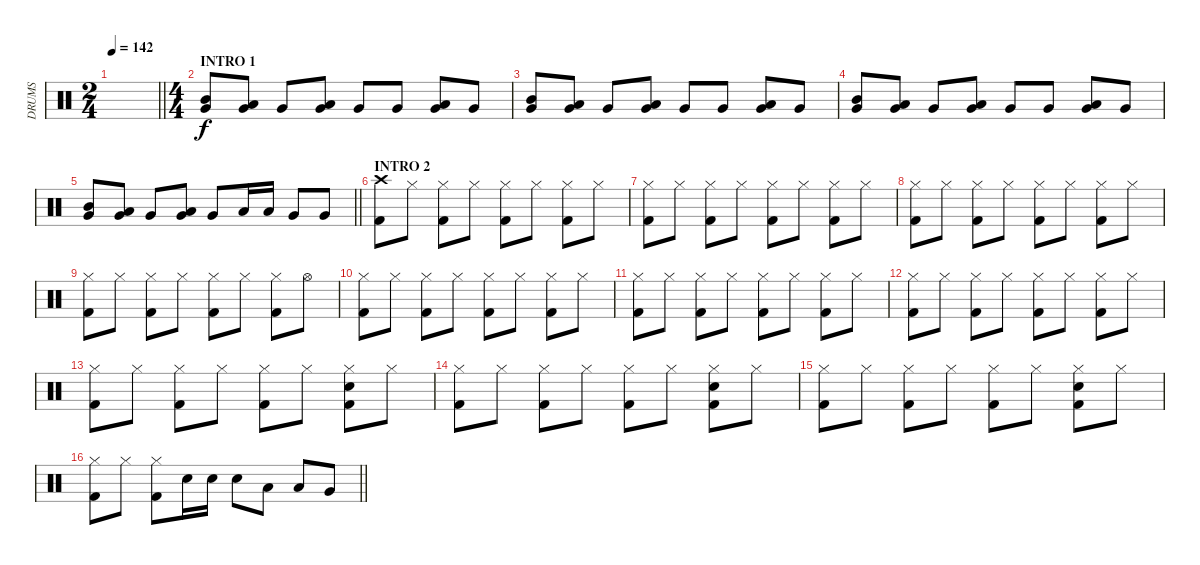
\track ("DRUMS" "DRUMS") {instrument percussion}
\staff {score}
\articulation defaults
\ts (2 4)
\tempo 142
\clef neutral
\barLineRight lightlight
\ks c
|
\ts (4 4)
\section ("" "INTRO 1")
("Mid Tom (hit)" "Very Low Tom (hit)").8 ("Very Low Tom (hit)" "Low Floor Tom (hit)").8 "Very Low Tom (hit)".8 ("Very Low Tom (hit)" "Low Tom (hit)").8 "Very Low Tom (hit)".8 "Very Low Tom (hit)".8 ("Low Tom (hit)" "Very Low Tom (hit)").8 "Very Low Tom (hit)".8 |
("Mid Tom (hit)" "Very Low Tom (hit)").8 ("Very Low Tom (hit)" "Low Floor Tom (hit)").8 "Very Low Tom (hit)".8 ("Very Low Tom (hit)" "Low Tom (hit)").8 "Very Low Tom (hit)".8 "Very Low Tom (hit)".8 ("Low Tom (hit)" "Very Low Tom (hit)").8 "Very Low Tom (hit)".8 |
("Mid Tom (hit)" "Very Low Tom (hit)").8 ("Very Low Tom (hit)" "Low Floor Tom (hit)").8 "Very Low Tom (hit)".8 ("Very Low Tom (hit)" "Low Tom (hit)").8 "Very Low Tom (hit)".8 "Very Low Tom (hit)".8 ("Low Tom (hit)" "Very Low Tom (hit)").8 "Very Low Tom (hit)".8 |
\barLineRight lightlight
("Mid Tom (hit)" "Very Low Tom (hit)").8 ("Low Tom (hit)" "Very Low Tom (hit)").8 "Very Low Tom (hit)".8 ("Low Tom (hit)" "Very Low Tom (hit)").8 "Very Low Tom (hit)".8 "Low Tom (hit)".16 "Low Tom (hit)".16 "Very Low Tom (hit)".8 "Very Low Tom (hit)".8 |
\section ("" "INTRO 2")
("Crash high (hit)" "Kick (hit) 2").8 "Hi-Hat (closed)".8 ("Hi-Hat (closed)" "Kick (hit) 2").8 "Hi-Hat (closed)".8 ("Hi-Hat (closed)" "Kick (hit) 2").8 "Hi-Hat (closed)".8 ("Hi-Hat (closed)" "Kick (hit) 2").8 "Hi-Hat (closed)".8 |
("Hi-Hat (closed)" "Kick (hit) 2").8 "Hi-Hat (closed)".8 ("Hi-Hat (closed)" "Kick (hit) 2").8 "Hi-Hat (closed)".8 ("Hi-Hat (closed)" "Kick (hit) 2").8 "Hi-Hat (closed)".8 ("Hi-Hat (closed)" "Kick (hit) 2").8 "Hi-Hat (closed)".8 |
("Hi-Hat (closed)" "Kick (hit) 2").8 "Hi-Hat (closed)".8 ("Hi-Hat (closed)" "Kick (hit) 2").8 "Hi-Hat (closed)".8 ("Hi-Hat (closed)" "Kick (hit) 2").8 "Hi-Hat (closed)".8 ("Hi-Hat (closed)" "Kick (hit) 2").8 "Hi-Hat (closed)".8 |
("Hi-Hat (closed)" "Kick (hit) 2").8 "Hi-Hat (closed)".8 ("Hi-Hat (closed)" "Kick (hit) 2").8 "Hi-Hat (closed)".8 ("Hi-Hat (closed)" "Kick (hit) 2").8 "Hi-Hat (closed)".8 ("Hi-Hat (closed)" "Kick (hit) 2").8 "Hi-Hat (open)".8 |
("Hi-Hat (closed)" "Kick (hit) 2").8 "Hi-Hat (closed)".8 ("Hi-Hat (closed)" "Kick (hit) 2").8 "Hi-Hat (closed)".8 ("Hi-Hat (closed)" "Kick (hit) 2").8 "Hi-Hat (closed)".8 ("Hi-Hat (closed)" "Kick (hit) 2").8 "Hi-Hat (closed)".8 |
("Hi-Hat (closed)" "Kick (hit) 2").8 "Hi-Hat (closed)".8 ("Hi-Hat (closed)" "Kick (hit) 2").8 "Hi-Hat (closed)".8 ("Hi-Hat (closed)" "Kick (hit) 2").8 "Hi-Hat (closed)".8 ("Hi-Hat (closed)" "Kick (hit) 2").8 "Hi-Hat (closed)".8 |
("Hi-Hat (closed)" "Kick (hit) 2").8 "Hi-Hat (closed)".8 ("Hi-Hat (closed)" "Kick (hit) 2").8 "Hi-Hat (closed)".8 ("Hi-Hat (closed)" "Kick (hit) 2").8 "Hi-Hat (closed)".8 ("Hi-Hat (closed)" "Kick (hit) 2").8 "Hi-Hat (closed)".8 |
("Hi-Hat (closed)" "Kick (hit) 2").8 "Hi-Hat (closed)".8 ("Hi-Hat (closed)" "Kick (hit) 2").8 "Hi-Hat (closed)".8 ("Hi-Hat (closed)" "Kick (hit) 2").8 "Hi-Hat (closed)".8 ("Hi-Hat (closed)" "Kick (hit) 2" "Snare (hit) 2").8 "Hi-Hat (closed)".8 |
("Hi-Hat (closed)" "Kick (hit) 2").8 "Hi-Hat (closed)".8 ("Hi-Hat (closed)" "Kick (hit) 2").8 "Hi-Hat (closed)".8 ("Hi-Hat (closed)" "Kick (hit) 2").8 "Hi-Hat (closed)".8 ("Hi-Hat (closed)" "Kick (hit) 2" "Snare (hit) 2").8 "Hi-Hat (closed)".8 |
("Hi-Hat (closed)" "Kick (hit) 2").8 "Hi-Hat (closed)".8 ("Hi-Hat (closed)" "Kick (hit) 2").8 "Hi-Hat (closed)".8 ("Hi-Hat (closed)" "Kick (hit) 2").8 "Hi-Hat (closed)".8 ("Hi-Hat (closed)" "Kick (hit) 2" "Snare (hit) 2").8 "Hi-Hat (closed)".8 |
\barLineRight lightlight
("Hi-Hat (closed)" "Kick (hit) 2").8 "Hi-Hat (closed)".8 ("Hi-Hat (closed)" "Kick (hit) 2").8 "Snare (hit) 2".16 "Snare (hit) 2".16 "Snare (hit) 2".8 "Low Tom (hit)".8 "Low Tom (hit)".8 "Very Low Tom (hit)".8
